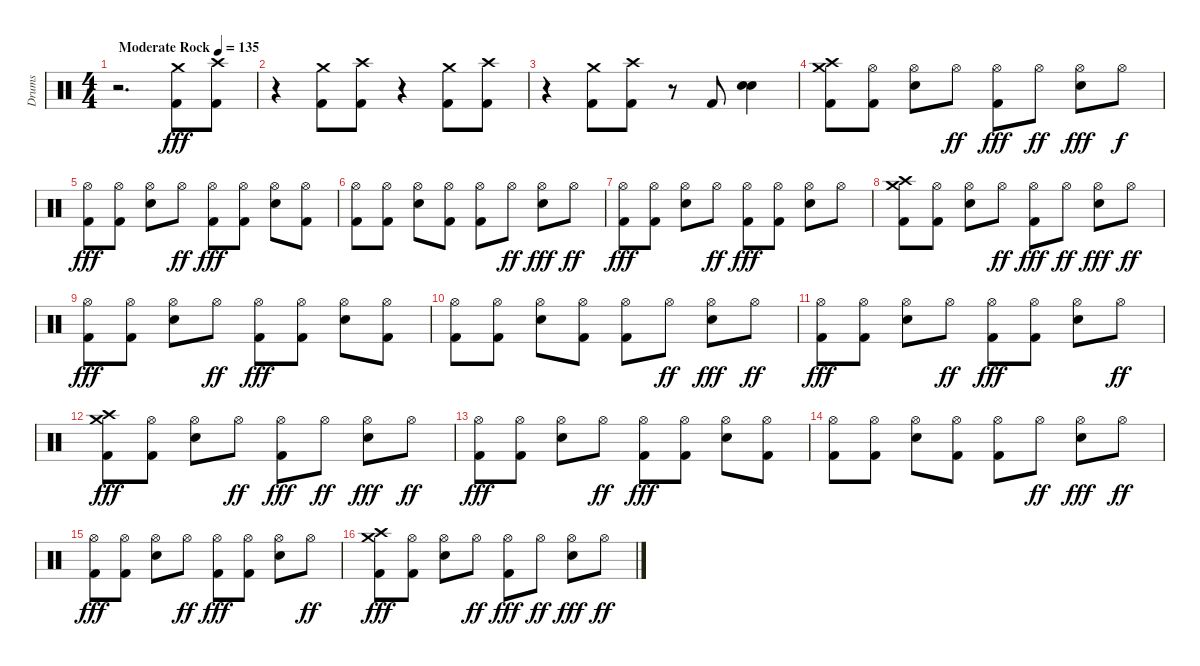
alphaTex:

\track ("Drums" "Drums") {instrument percussion}
\staff {score}
\articulation defaults
\ts (4 4)
\tempo (135 "Moderate Rock")
\clef neutral
\ks c
r.2{d dy fff} ("Crash medium (hit)" "Kick (hit) 2").8 ("Crash high (hit)" "Kick (hit) 2").8 |
r.4 ("Crash medium (hit)" "Kick (hit) 2").8 ("Crash high (hit)" "Kick (hit) 2").8 r.4 ("Crash medium (hit)" "Kick (hit) 2").8 ("Crash high (hit)" "Kick (hit) 2").8 |
r.4 ("Crash medium (hit)" "Kick (hit) 2").8 ("Crash high (hit)" "Kick (hit) 2").8 r.8 "Kick (hit) 2".8 ("Snare (hit) 2" "Snare (hit) 2").4 |
("Crash high (hit)" "Crash medium (hit)" "Kick (hit) 2").8 ("Hi-Hat (open)" "Kick (hit) 2").8 ("Hi-Hat (open)" "Snare (hit) 2").8 "Hi-Hat (open)".8{dy ff} ("Hi-Hat (open)" "Kick (hit) 2").8{dy fff} "Hi-Hat (open)".8{dy ff} ("Hi-Hat (open)" "Snare (hit) 2").8{dy fff} "Hi-Hat (open)".8{dy f} |
("Hi-Hat (open)" "Kick (hit) 2").8{dy fff} ("Hi-Hat (open)" "Kick (hit) 2").8 ("Hi-Hat (open)" "Snare (hit) 2").8 "Hi-Hat (open)".8{dy ff} ("Hi-Hat (open)" "Kick (hit) 2").8{dy fff} ("Hi-Hat (open)" "Kick (hit) 2").8 ("Hi-Hat (open)" "Snare (hit) 2").8 ("Hi-Hat (open)" "Kick (hit) 2").8 |
("Hi-Hat (open)" "Kick (hit) 2").8 ("Hi-Hat (open)" "Kick (hit) 2").8 ("Hi-Hat (open)" "Snare (hit) 2").8 ("Hi-Hat (open)" "Kick (hit) 2").8 ("Hi-Hat (open)" "Kick (hit) 2").8 "Hi-Hat (open)".8{dy ff} ("Hi-Hat (open)" "Snare (hit) 2").8{dy fff} "Hi-Hat (open)".8{dy ff} |
("Hi-Hat (open)" "Kick (hit) 2").8{dy fff} ("Hi-Hat (open)" "Kick (hit) 2").8 ("Hi-Hat (open)" "Snare (hit) 2").8 "Hi-Hat (open)".8{dy ff} ("Hi-Hat (open)" "Kick (hit) 2").8{dy fff} ("Hi-Hat (open)" "Kick (hit) 2").8 ("Hi-Hat (open)" "Snare (hit) 2").8 "Hi-Hat (open)".8 |
("Crash high (hit)" "Crash medium (hit)" "Kick (hit) 2").8 ("Hi-Hat (open)" "Kick (hit) 2").8 ("Hi-Hat (open)" "Snare (hit) 2").8 "Hi-Hat (open)".8{dy ff} ("Hi-Hat (open)" "Kick (hit) 2").8{dy fff} "Hi-Hat (open)".8{dy ff} ("Hi-Hat (open)" "Snare (hit) 2").8{dy fff} "Hi-Hat (open)".8{dy ff} |
("Hi-Hat (open)" "Kick (hit) 2").8{dy fff} ("Hi-Hat (open)" "Kick (hit) 2").8 ("Hi-Hat (open)" "Snare (hit) 2").8 "Hi-Hat (open)".8{dy ff} ("Hi-Hat (open)" "Kick (hit) 2").8{dy fff} ("Hi-Hat (open)" "Kick (hit) 2").8 ("Hi-Hat (open)" "Snare (hit) 2").8 ("Hi-Hat (open)" "Kick (hit) 2").8 |
("Hi-Hat (open)" "Kick (hit) 2").8 ("Hi-Hat (open)" "Kick (hit) 2").8 ("Hi-Hat (open)" "Snare (hit) 2").8 ("Hi-Hat (open)" "Kick (hit) 2").8 ("Hi-Hat (open)" "Kick (hit) 2").8 "Hi-Hat (open)".8{dy ff} ("Hi-Hat (open)" "Snare (hit) 2").8{dy fff} "Hi-Hat (open)".8{dy ff} |
("Hi-Hat (open)" "Kick (hit) 2").8{dy fff} ("Hi-Hat (open)" "Kick (hit) 2").8 ("Hi-Hat (open)" "Snare (hit) 2").8 "Hi-Hat (open)".8{dy ff} ("Hi-Hat (open)" "Kick (hit) 2").8{dy fff} ("Hi-Hat (open)" "Kick (hit) 2").8 ("Hi-Hat (open)" "Snare (hit) 2").8 "Hi-Hat (open)".8{dy ff} |
("Crash high (hit)" "Crash medium (hit)" "Kick (hit) 2").8{dy fff} ("Hi-Hat (open)" "Kick (hit) 2").8 ("Hi-Hat (open)" "Snare (hit) 2").8 "Hi-Hat (open)".8{dy ff} ("Hi-Hat (open)" "Kick (hit) 2").8{dy fff} "Hi-Hat (open)".8{dy ff} ("Hi-Hat (open)" "Snare (hit) 2").8{dy fff} "Hi-Hat (open)".8{dy ff} |
("Hi-Hat (open)" "Kick (hit) 2").8{dy fff} ("Hi-Hat (open)" "Kick (hit) 2").8 ("Hi-Hat (open)" "Snare (hit) 2").8 "Hi-Hat (open)".8{dy ff} ("Hi-Hat (open)" "Kick (hit) 2").8{dy fff} ("Hi-Hat (open)" "Kick (hit) 2").8 ("Hi-Hat (open)" "Snare (hit) 2").8 ("Hi-Hat (open)" "Kick (hit) 2").8 |
("Hi-Hat (open)" "Kick (hit) 2").8 ("Hi-Hat (open)" "Kick (hit) 2").8 ("Hi-Hat (open)" "Snare (hit) 2").8 ("Hi-Hat (open)" "Kick (hit) 2").8 ("Hi-Hat (open)" "Kick (hit) 2").8 "Hi-Hat (open)".8{dy ff} ("Hi-Hat (open)" "Snare (hit) 2").8{dy fff} "Hi-Hat (open)".8{dy ff} |
("Hi-Hat (open)" "Kick (hit) 2").8{dy fff} ("Hi-Hat (open)" "Kick (hit) 2").8 ("Hi-Hat (open)" "Snare (hit) 2").8 "Hi-Hat (open)".8{dy ff} ("Hi-Hat (open)" "Kick (hit) 2").8{dy fff} ("Hi-Hat (open)" "Kick (hit) 2").8 ("Hi-Hat (open)" "Snare (hit) 2").8 "Hi-Hat (open)".8{dy ff} |
("Crash high (hit)" "Crash medium (hit)" "Kick (hit) 2").8{dy fff} ("Hi-Hat (open)" "Kick (hit) 2").8 ("Hi-Hat (open)" "Snare (hit) 2").8 "Hi-Hat (open)".8{dy ff} ("Hi-Hat (open)" "Kick (hit) 2").8{dy fff} "Hi-Hat (open)".8{dy ff} ("Hi-Hat (open)" "Snare (hit) 2").8{dy fff} "Hi-Hat (open)".8{dy ff}
